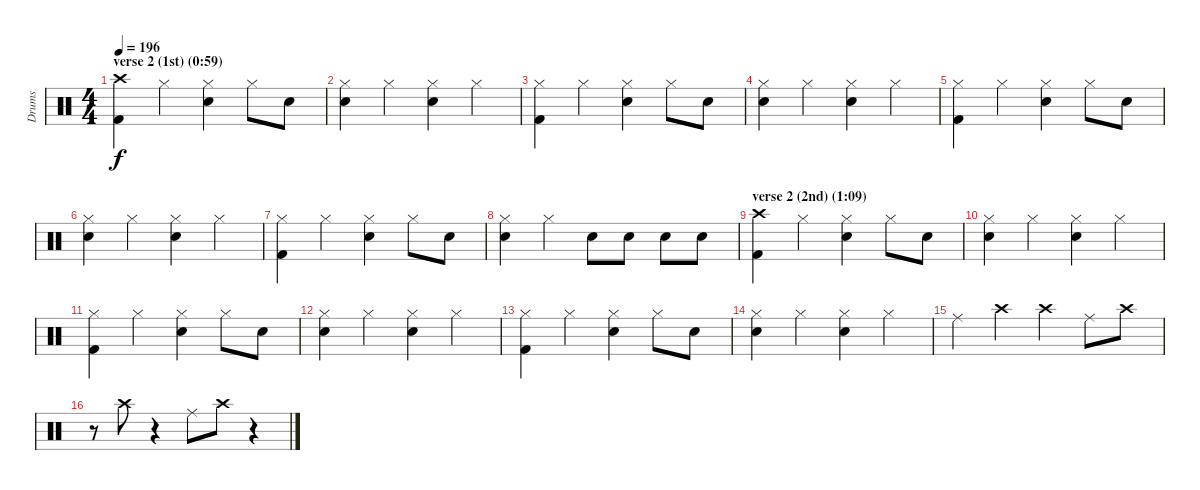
\track ("Drums" "Drums") {instrument percussion}
\staff {score}
\articulation defaults
\ts (4 4)
\section ("" "verse 2 (1st) (0:59)")
\tempo 196
\clef neutral
\ks c
("Crash high (hit)" "Kick (hit) 2").4{dy f} "Hi-Hat (closed)".4 ("Hi-Hat (closed)" "Snare (hit) 2").4 "Hi-Hat (closed)".8 "Snare (hit) 2".8 |
("Hi-Hat (closed)" "Snare (hit) 2").4 "Hi-Hat (closed)".4 ("Hi-Hat (closed)" "Snare (hit) 2").4 "Hi-Hat (closed)".4 |
("Hi-Hat (closed)" "Kick (hit) 2").4 "Hi-Hat (closed)".4 ("Hi-Hat (closed)" "Snare (hit) 2").4 "Hi-Hat (closed)".8 "Snare (hit) 2".8 |
("Hi-Hat (closed)" "Snare (hit) 2").4 "Hi-Hat (closed)".4 ("Hi-Hat (closed)" "Snare (hit) 2").4 "Hi-Hat (closed)".4 |
("Hi-Hat (closed)" "Kick (hit) 2").4 "Hi-Hat (closed)".4 ("Hi-Hat (closed)" "Snare (hit) 2").4 "Hi-Hat (closed)".8 "Snare (hit) 2".8 |
("Hi-Hat (closed)" "Snare (hit) 2").4 "Hi-Hat (closed)".4 ("Hi-Hat (closed)" "Snare (hit) 2").4 "Hi-Hat (closed)".4 |
("Hi-Hat (closed)" "Kick (hit) 2").4 "Hi-Hat (closed)".4 ("Hi-Hat (closed)" "Snare (hit) 2").4 "Hi-Hat (closed)".8 "Snare (hit) 2".8 |
("Hi-Hat (closed)" "Snare (hit) 2").4 "Hi-Hat (closed)".4 "Snare (hit) 2".8 "Snare (hit) 2".8 "Snare (hit) 2".8 "Snare (hit) 2".8 |
\section ("" "verse 2 (2nd) (1:09)")
("Crash high (hit)" "Kick (hit) 2").4 "Hi-Hat (closed)".4 ("Hi-Hat (closed)" "Snare (hit) 2").4 "Hi-Hat (closed)".8 "Snare (hit) 2".8 |
("Hi-Hat (closed)" "Snare (hit) 2").4 "Hi-Hat (closed)".4 ("Hi-Hat (closed)" "Snare (hit) 2").4 "Hi-Hat (closed)".4 |
("Hi-Hat (closed)" "Kick (hit) 2").4 "Hi-Hat (closed)".4 ("Hi-Hat (closed)" "Snare (hit) 2").4 "Hi-Hat (closed)".8 "Snare (hit) 2".8 |
("Hi-Hat (closed)" "Snare (hit) 2").4 "Hi-Hat (closed)".4 ("Hi-Hat (closed)" "Snare (hit) 2").4 "Hi-Hat (closed)".4 |
("Hi-Hat (closed)" "Kick (hit) 2").4 "Hi-Hat (closed)".4 ("Hi-Hat (closed)" "Snare (hit) 2").4 "Hi-Hat (closed)".8 "Snare (hit) 2".8 |
("Hi-Hat (closed)" "Snare (hit) 2").4 "Hi-Hat (closed)".4 ("Hi-Hat (closed)" "Snare (hit) 2").4 "Hi-Hat (closed)".4 |
"Ride (middle)".4 "Crash high (hit)".4 "Crash high (hit)".4 "Ride (middle)".8 "Crash high (hit)".8 |
r.8 "Crash high (hit)".8 r.4 "Ride (middle)".8 "Crash high (hit)".8 r.4
